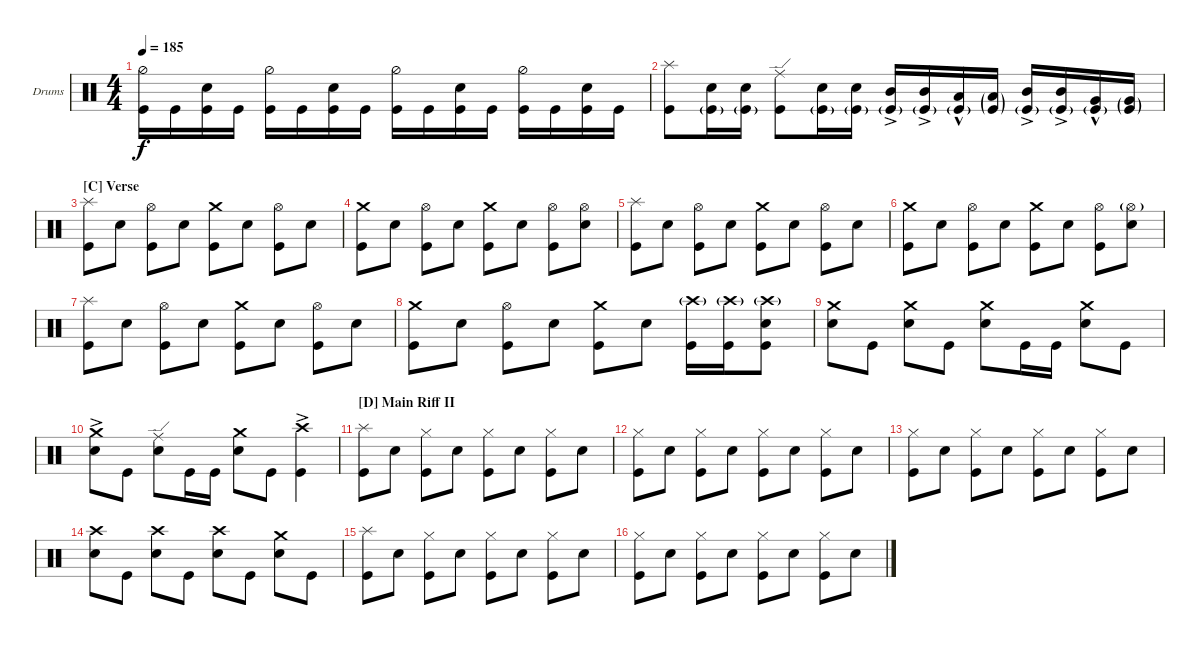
\defaultSystemsLayout 4
\bracketExtendMode groupsimilarinstruments
\firstSystemTrackNameOrientation horizontal
\otherSystemsTrackNameOrientation horizontal
\track ("Drumkit" "Drums") {instrument percussion}
\staff {score}
\articulation defaults
\ts (4 4)
\tempo 185
\clef neutral
\ks c
("Kick (hit)" "Hi-Hat (half)").16{dy f} "Kick (hit)".16 ("Kick (hit)" "Snare (hit) 2").16 "Kick (hit)".16 ("Kick (hit)" "Hi-Hat (half)").16 "Kick (hit)".16 ("Kick (hit)" "Snare (hit) 2").16 "Kick (hit)".16 ("Kick (hit)" "Hi-Hat (half)").16 "Kick (hit)".16 ("Kick (hit)" "Snare (hit) 2").16 "Kick (hit)".16 ("Kick (hit)" "Hi-Hat (half)").16 "Kick (hit)".16 ("Kick (hit)" "Snare (hit) 2").16 "Kick (hit)".16 |
("Kick (hit)" "Splash (hit)").8 ("Snare (hit) 2" "Kick (hit)"{g}).16 ("Snare (hit) 2" "Kick (hit)"{g}).16 ("Kick (hit)" "Ride (edge)").8 ("Snare (hit) 2" "Kick (hit)"{g}).16 ("Snare (hit) 2" "Kick (hit)"{g}).16 ("Mid Tom (hit)"{ac} "Kick (hit)"{g}).16 ("Mid Tom (hit)"{ac} "Kick (hit)"{g}).16 ("Low Tom (hit)"{hac} "Kick (hit)"{g}).16 ("Low Tom (hit)"{g} "Kick (hit)"{g}).16 ("Mid Tom (hit)"{ac} "Kick (hit)"{g}).16 ("Mid Tom (hit)"{ac} "Kick (hit)"{g}).16 ("Very Low Tom (hit)"{hac} "Kick (hit)"{g}).16 ("Very Low Tom (hit)"{g} "Kick (hit)"{g}).16 |
\section ("C" "Verse")
("Kick (hit)" "Splash (hit)").8 "Snare (hit) 2".8 ("Kick (hit)" "Hi-Hat (open)").8 "Snare (hit) 2".8 ("Kick (hit)" "Crash medium (hit)").8 "Snare (hit) 2".8 ("Kick (hit)" "Hi-Hat (open)").8 "Snare (hit) 2".8 |
("Kick (hit)" "Crash medium (hit)").8 "Snare (hit) 2".8 ("Kick (hit)" "Hi-Hat (open)").8 "Snare (hit) 2".8 ("Kick (hit)" "Crash medium (hit)").8 "Snare (hit) 2".8 ("Kick (hit)" "Hi-Hat (open)").8 ("Snare (hit) 2" "Hi-Hat (open)").8 |
("Kick (hit)" "Splash (hit)").8 "Snare (hit) 2".8 ("Kick (hit)" "Hi-Hat (open)").8 "Snare (hit) 2".8 ("Kick (hit)" "Crash medium (hit)").8 "Snare (hit) 2".8 ("Kick (hit)" "Hi-Hat (open)").8 "Snare (hit) 2".8 |
("Kick (hit)" "Crash medium (hit)").8 "Snare (hit) 2".8 ("Kick (hit)" "Hi-Hat (open)").8 "Snare (hit) 2".8 ("Kick (hit)" "Crash medium (hit)").8 "Snare (hit) 2".8 ("Kick (hit)" "Hi-Hat (open)").8 ("Snare (hit) 2" "Hi-Hat (open)"{g}).8 |
("Kick (hit)" "Splash (hit)").8 "Snare (hit) 2".8 ("Kick (hit)" "Hi-Hat (open)").8 "Snare (hit) 2".8 ("Kick (hit)" "Crash medium (hit)").8 "Snare (hit) 2".8 ("Kick (hit)" "Hi-Hat (open)").8 "Snare (hit) 2".8 |
("Kick (hit)" "Crash medium (hit)").8 "Snare (hit) 2".8 ("Kick (hit)" "Hi-Hat (open)").8 "Snare (hit) 2".8 ("Kick (hit)" "Crash medium (hit)").8 "Snare (hit) 2".8 ("Kick (hit)" "Crash high (hit)"{g}).16 ("Kick (hit)" "Crash high (hit)"{g}).16 ("Snare (hit) 2" "Kick (hit)" "Crash high (hit)"{g}).8 |
("Snare (hit) 2" "Crash medium (hit)").8 "Kick (hit)".8 ("Snare (hit) 2" "Crash medium (hit)").8 "Kick (hit)".8 ("Snare (hit) 2" "Crash medium (hit)").8 "Kick (hit)".16 "Kick (hit)".16 ("Snare (hit) 2" "Crash medium (hit)").8 "Kick (hit)".8 |
("Snare (hit) 2" "Crash medium (hit)"{ac}).8 "Kick (hit)".8 ("Snare (hit) 2" "Ride (edge)").8 "Kick (hit)".16 "Kick (hit)".16 ("Snare (hit) 2" "Crash medium (hit)").8 "Kick (hit)".8 ("Kick (hit)" "Crash high (hit)"{ac}).4 |
\section ("D" "Main Riff II")
("Kick (hit)" "Splash (hit)").8 "Snare (hit) 2".8 ("Kick (hit)" "Hi-Hat (closed)").8 "Snare (hit) 2".8 ("Kick (hit)" "Hi-Hat (closed)").8 "Snare (hit) 2".8 ("Kick (hit)" "Hi-Hat (closed)").8 "Snare (hit) 2".8 |
("Kick (hit)" "Hi-Hat (closed)").8 "Snare (hit) 2".8 ("Kick (hit)" "Hi-Hat (closed)").8 "Snare (hit) 2".8 ("Kick (hit)" "Hi-Hat (closed)").8 "Snare (hit) 2".8 ("Kick (hit)" "Hi-Hat (closed)").8 "Snare (hit) 2".8 |
("Kick (hit)" "Hi-Hat (closed)").8 "Snare (hit) 2".8 ("Kick (hit)" "Hi-Hat (closed)").8 "Snare (hit) 2".8 ("Kick (hit)" "Hi-Hat (closed)").8 "Snare (hit) 2".8 ("Kick (hit)" "Hi-Hat (closed)").8 "Snare (hit) 2".8 |
("Snare (hit) 2" "Crash high (hit)").8 "Kick (hit)".8 ("Snare (hit) 2" "Crash high (hit)").8 "Kick (hit)".8 ("Snare (hit) 2" "Crash high (hit)").8 "Kick (hit)".8 ("Snare (hit) 2" "Crash medium (hit)").8 "Kick (hit)".8 |
("Kick (hit)" "Splash (hit)").8 "Snare (hit) 2".8 ("Kick (hit)" "Hi-Hat (closed)").8 "Snare (hit) 2".8 ("Kick (hit)" "Hi-Hat (closed)").8 "Snare (hit) 2".8 ("Kick (hit)" "Hi-Hat (closed)").8 "Snare (hit) 2".8 |
("Kick (hit)" "Hi-Hat (closed)").8 "Snare (hit) 2".8 ("Kick (hit)" "Hi-Hat (closed)").8 "Snare (hit) 2".8 ("Kick (hit)" "Hi-Hat (closed)").8 "Snare (hit) 2".8 ("Kick (hit)" "Hi-Hat (closed)").8 "Snare (hit) 2".8
